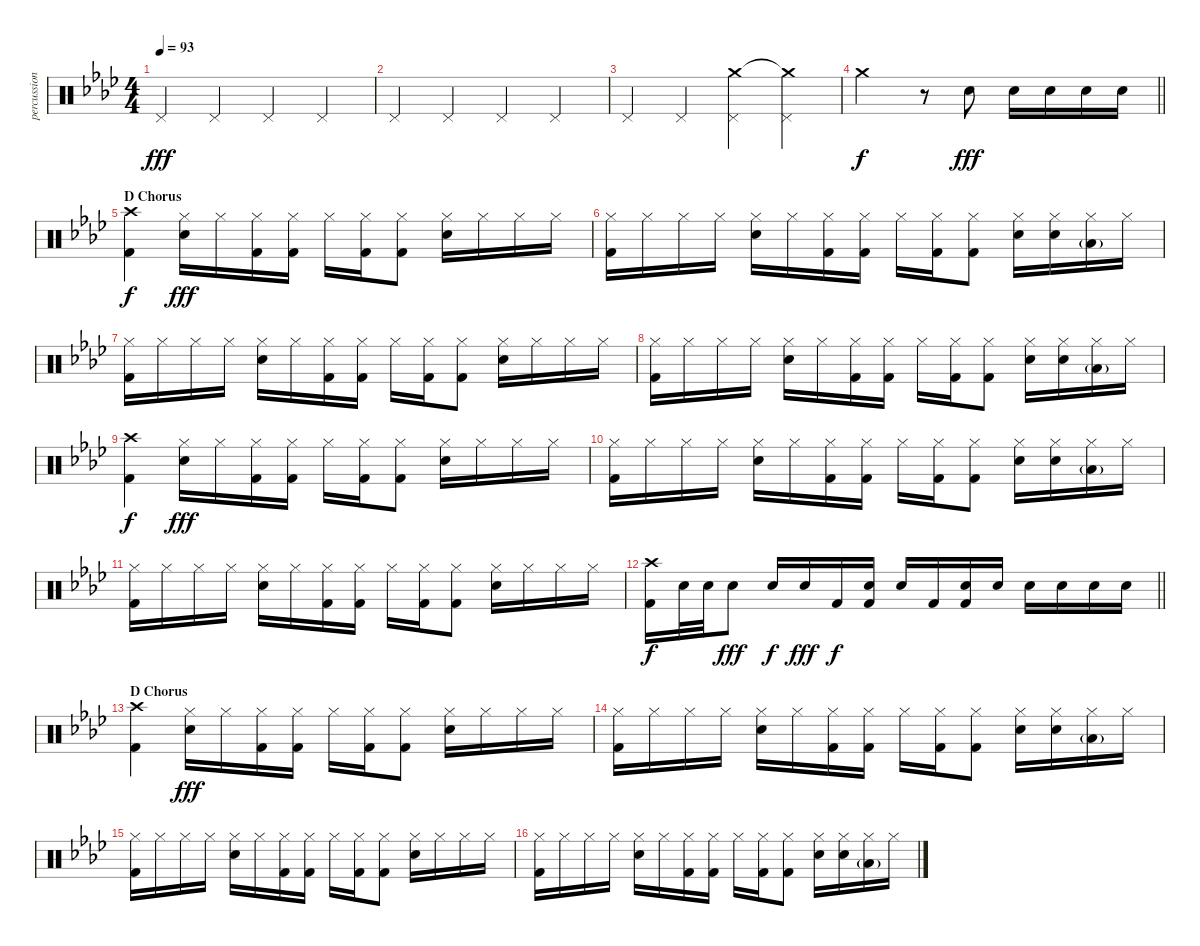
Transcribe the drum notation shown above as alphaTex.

\track ("percussion" "percussion") {instrument percussion}
\staff {score}
\articulation defaults
\ts (4 4)
\tempo 93
\clef neutral
\ks fminor "Pedal Hi-Hat (hit)".4{dy fff} "Pedal Hi-Hat (hit)".4 "Pedal Hi-Hat (hit)".4 "Pedal Hi-Hat (hit)".4
|
"Pedal Hi-Hat (hit)".4 "Pedal Hi-Hat (hit)".4 "Pedal Hi-Hat (hit)".4 "Pedal Hi-Hat (hit)".4 |
"Pedal Hi-Hat (hit)".4 "Pedal Hi-Hat (hit)".4 ("Crash medium (hit)" "Pedal Hi-Hat (hit)").4 ("Crash medium (hit)"{t} "Pedal Hi-Hat (hit)").4 |
\barLineRight lightlight "Crash medium (hit)".2{dy f}
r.8 "Snare (hit) 2".8{dy fff} "Snare (hit) 2".16 "Snare (hit) 2".16 "Snare (hit) 2".16 "Snare (hit) 2".16 |
\section ("" "D Chorus")
("Crash high (hit)" "Kick (hit) 2").4{dy f} ("Snare (hit) 2" "Hi-Hat (closed)").16{dy fff} "Hi-Hat (closed)".16 ("Hi-Hat (closed)" "Kick (hit) 2").16 ("Hi-Hat (closed)" "Kick (hit) 2").16 "Hi-Hat (closed)".16 ("Hi-Hat (closed)" "Kick (hit) 2").16 ("Hi-Hat (closed)" "Kick (hit) 2").8 ("Snare (hit) 2" "Hi-Hat (closed)").16 "Hi-Hat (closed)".16 "Hi-Hat (closed)".16 "Hi-Hat (closed)".16 |
("Hi-Hat (closed)" "Kick (hit) 2").16 "Hi-Hat (closed)".16 "Hi-Hat (closed)".16 "Hi-Hat (closed)".16 ("Snare (hit) 2" "Hi-Hat (closed)").16 "Hi-Hat (closed)".16 ("Hi-Hat (closed)" "Kick (hit) 2").16 ("Hi-Hat (closed)" "Kick (hit) 2").16 "Hi-Hat (closed)".16 ("Hi-Hat (closed)" "Kick (hit) 2").16 ("Hi-Hat (closed)" "Kick (hit) 2").8 ("Snare (hit) 2" "Hi-Hat (closed)").16 ("Snare (hit) 2" "Hi-Hat (closed)").16 ("Low Floor Tom (hit)"{g} "Hi-Hat (closed)").16 "Hi-Hat (closed)".16 |
("Hi-Hat (closed)" "Kick (hit) 2").16 "Hi-Hat (closed)".16 "Hi-Hat (closed)".16 "Hi-Hat (closed)".16 ("Snare (hit) 2" "Hi-Hat (closed)").16 "Hi-Hat (closed)".16 ("Hi-Hat (closed)" "Kick (hit) 2").16 ("Hi-Hat (closed)" "Kick (hit) 2").16 "Hi-Hat (closed)".16 ("Hi-Hat (closed)" "Kick (hit) 2").16 ("Hi-Hat (closed)" "Kick (hit) 2").8 ("Snare (hit) 2" "Hi-Hat (closed)").16 "Hi-Hat (closed)".16 "Hi-Hat (closed)".16 "Hi-Hat (closed)".16 |
("Hi-Hat (closed)" "Kick (hit) 2").16 "Hi-Hat (closed)".16 "Hi-Hat (closed)".16 "Hi-Hat (closed)".16 ("Snare (hit) 2" "Hi-Hat (closed)").16 "Hi-Hat (closed)".16 ("Hi-Hat (closed)" "Kick (hit) 2").16 ("Hi-Hat (closed)" "Kick (hit) 2").16 "Hi-Hat (closed)".16 ("Hi-Hat (closed)" "Kick (hit) 2").16 ("Hi-Hat (closed)" "Kick (hit) 2").8 ("Snare (hit) 2" "Hi-Hat (closed)").16 ("Snare (hit) 2" "Hi-Hat (closed)").16 ("Low Floor Tom (hit)"{g} "Hi-Hat (closed)").16 "Hi-Hat (closed)".16 |
("Crash high (hit)" "Kick (hit) 2").4{dy f} ("Snare (hit) 2" "Hi-Hat (closed)").16{dy fff} "Hi-Hat (closed)".16 ("Hi-Hat (closed)" "Kick (hit) 2").16 ("Hi-Hat (closed)" "Kick (hit) 2").16 "Hi-Hat (closed)".16 ("Hi-Hat (closed)" "Kick (hit) 2").16 ("Hi-Hat (closed)" "Kick (hit) 2").8 ("Snare (hit) 2" "Hi-Hat (closed)").16 "Hi-Hat (closed)".16 "Hi-Hat (closed)".16 "Hi-Hat (closed)".16 |
("Hi-Hat (closed)" "Kick (hit) 2").16 "Hi-Hat (closed)".16 "Hi-Hat (closed)".16 "Hi-Hat (closed)".16 ("Snare (hit) 2" "Hi-Hat (closed)").16 "Hi-Hat (closed)".16 ("Hi-Hat (closed)" "Kick (hit) 2").16 ("Hi-Hat (closed)" "Kick (hit) 2").16 "Hi-Hat (closed)".16 ("Hi-Hat (closed)" "Kick (hit) 2").16 ("Hi-Hat (closed)" "Kick (hit) 2").8 ("Snare (hit) 2" "Hi-Hat (closed)").16 ("Snare (hit) 2" "Hi-Hat (closed)").16 ("Low Floor Tom (hit)"{g} "Hi-Hat (closed)").16 "Hi-Hat (closed)".16 |
("Hi-Hat (closed)" "Kick (hit) 2").16 "Hi-Hat (closed)".16 "Hi-Hat (closed)".16 "Hi-Hat (closed)".16 ("Snare (hit) 2" "Hi-Hat (closed)").16 "Hi-Hat (closed)".16 ("Hi-Hat (closed)" "Kick (hit) 2").16 ("Hi-Hat (closed)" "Kick (hit) 2").16 "Hi-Hat (closed)".16 ("Hi-Hat (closed)" "Kick (hit) 2").16 ("Hi-Hat (closed)" "Kick (hit) 2").8 ("Snare (hit) 2" "Hi-Hat (closed)").16 "Hi-Hat (closed)".16 "Hi-Hat (closed)".16 "Hi-Hat (closed)".16 |
\barLineRight lightlight
("Crash high (hit)" "Kick (hit) 2").16{dy f} "Snare (hit) 2".32 "Snare (hit) 2".32 "Snare (hit) 2".8{dy fff} "Snare (hit) 2".16{dy f} "Snare (hit) 2".16{dy fff} "Kick (hit) 2".16{dy f} ("Snare (hit) 2" "Kick (hit) 2").16 "Snare (hit) 2".16 "Kick (hit) 2".16 ("Snare (hit) 2" "Kick (hit) 2").16 "Snare (hit) 2".16 "Snare (hit) 2".16 "Snare (hit) 2".16 "Snare (hit) 2".16 "Snare (hit) 2".16 |
\section ("" "D Chorus")
("Crash high (hit)" "Kick (hit) 2").4 ("Snare (hit) 2" "Hi-Hat (closed)").16{dy fff} "Hi-Hat (closed)".16 ("Hi-Hat (closed)" "Kick (hit) 2").16 ("Hi-Hat (closed)" "Kick (hit) 2").16 "Hi-Hat (closed)".16 ("Hi-Hat (closed)" "Kick (hit) 2").16 ("Hi-Hat (closed)" "Kick (hit) 2").8 ("Snare (hit) 2" "Hi-Hat (closed)").16 "Hi-Hat (closed)".16 "Hi-Hat (closed)".16 "Hi-Hat (closed)".16 |
("Hi-Hat (closed)" "Kick (hit) 2").16 "Hi-Hat (closed)".16 "Hi-Hat (closed)".16 "Hi-Hat (closed)".16 ("Snare (hit) 2" "Hi-Hat (closed)").16 "Hi-Hat (closed)".16 ("Hi-Hat (closed)" "Kick (hit) 2").16 ("Hi-Hat (closed)" "Kick (hit) 2").16 "Hi-Hat (closed)".16 ("Hi-Hat (closed)" "Kick (hit) 2").16 ("Hi-Hat (closed)" "Kick (hit) 2").8 ("Snare (hit) 2" "Hi-Hat (closed)").16 ("Snare (hit) 2" "Hi-Hat (closed)").16 ("Low Floor Tom (hit)"{g} "Hi-Hat (closed)").16 "Hi-Hat (closed)".16 |
("Hi-Hat (closed)" "Kick (hit) 2").16 "Hi-Hat (closed)".16 "Hi-Hat (closed)".16 "Hi-Hat (closed)".16 ("Snare (hit) 2" "Hi-Hat (closed)").16 "Hi-Hat (closed)".16 ("Hi-Hat (closed)" "Kick (hit) 2").16 ("Hi-Hat (closed)" "Kick (hit) 2").16 "Hi-Hat (closed)".16 ("Hi-Hat (closed)" "Kick (hit) 2").16 ("Hi-Hat (closed)" "Kick (hit) 2").8 ("Snare (hit) 2" "Hi-Hat (closed)").16 "Hi-Hat (closed)".16 "Hi-Hat (closed)".16 "Hi-Hat (closed)".16 |
("Hi-Hat (closed)" "Kick (hit) 2").16 "Hi-Hat (closed)".16 "Hi-Hat (closed)".16 "Hi-Hat (closed)".16 ("Snare (hit) 2" "Hi-Hat (closed)").16 "Hi-Hat (closed)".16 ("Hi-Hat (closed)" "Kick (hit) 2").16 ("Hi-Hat (closed)" "Kick (hit) 2").16 "Hi-Hat (closed)".16 ("Hi-Hat (closed)" "Kick (hit) 2").16 ("Hi-Hat (closed)" "Kick (hit) 2").8 ("Snare (hit) 2" "Hi-Hat (closed)").16 ("Snare (hit) 2" "Hi-Hat (closed)").16 ("Low Floor Tom (hit)"{g} "Hi-Hat (closed)").16 "Hi-Hat (closed)".16
